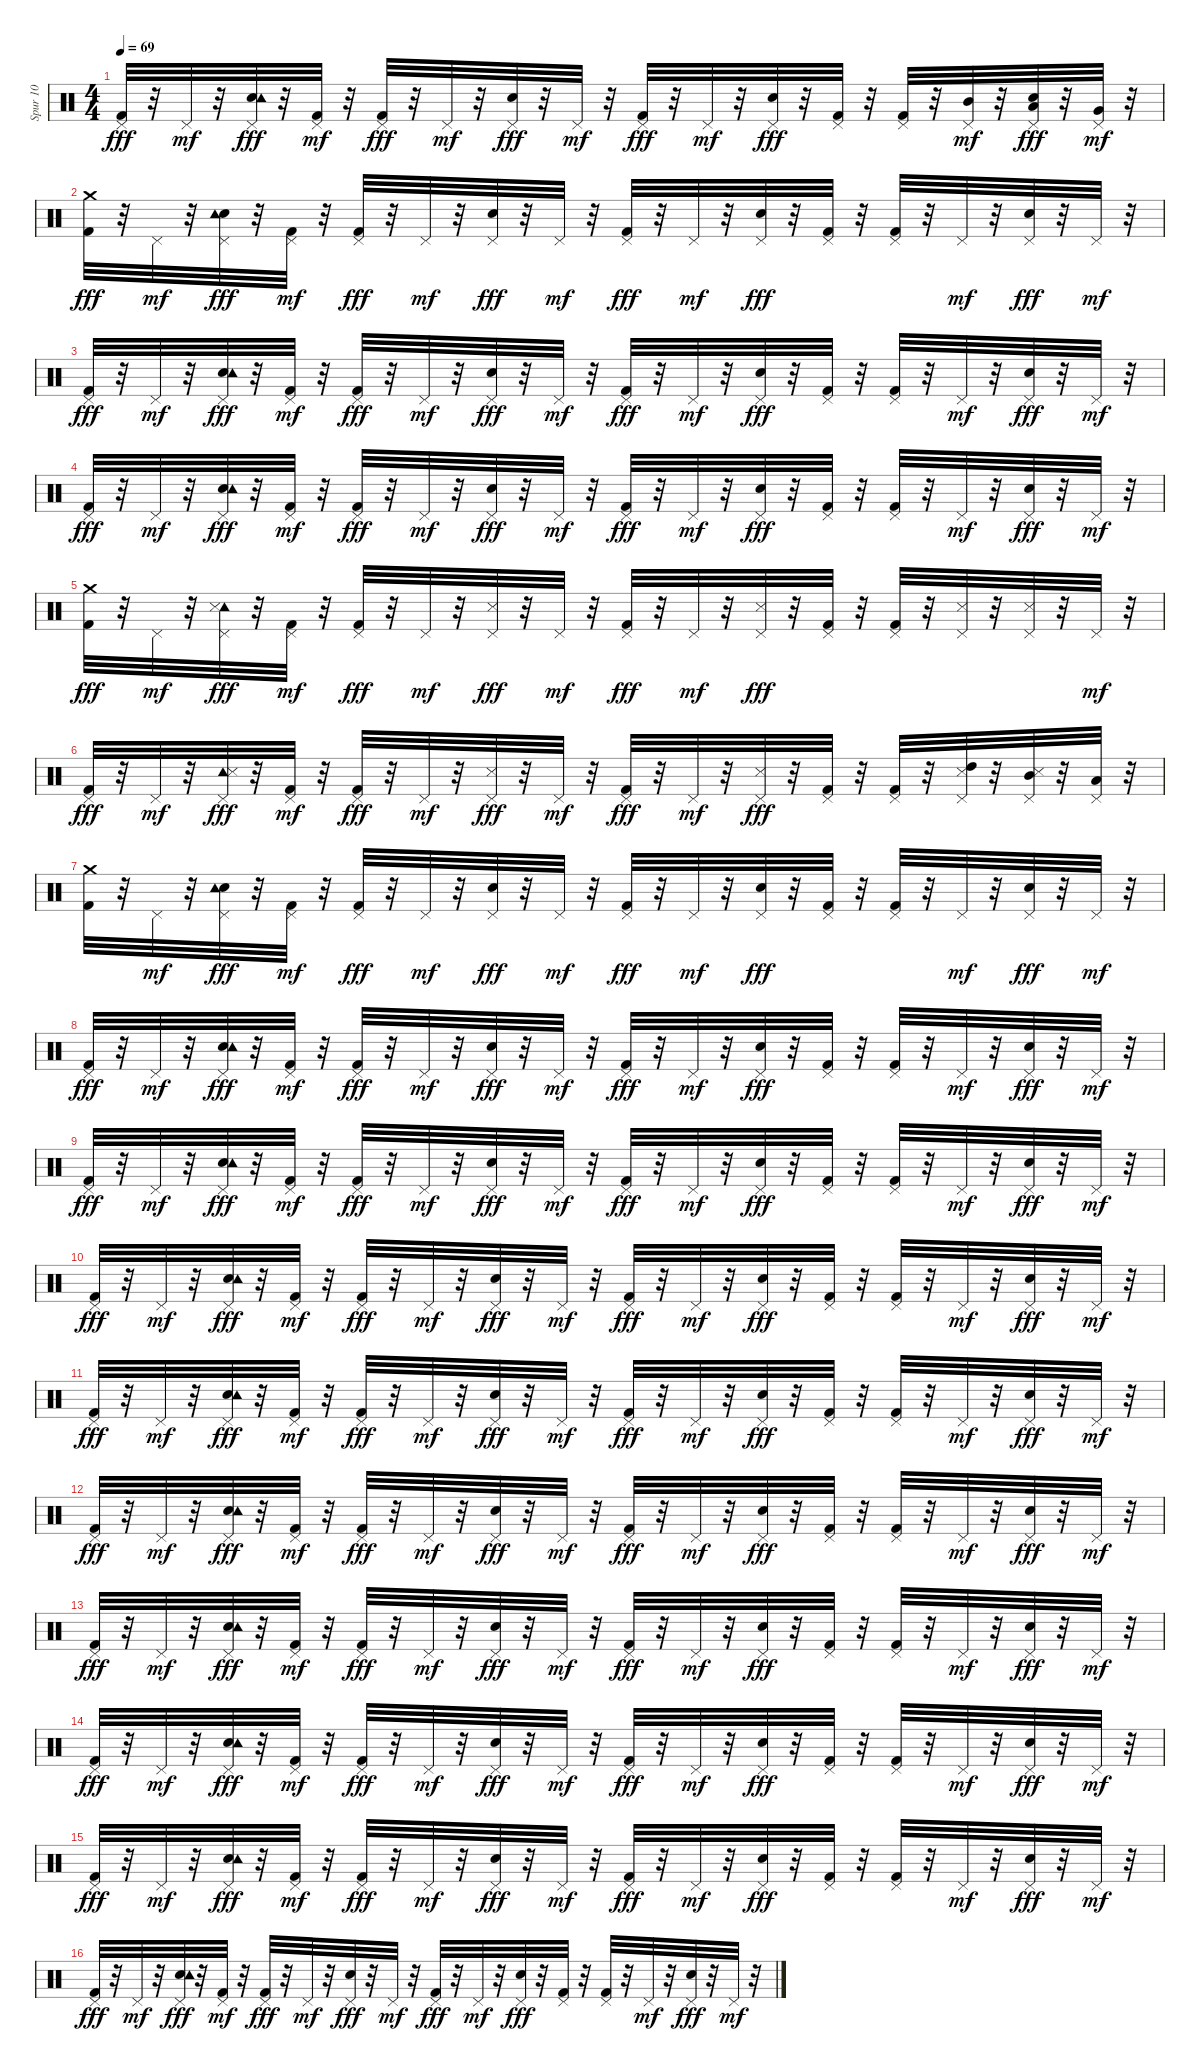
\track ("Spur 10" "Spur 10") {instrument percussion}
\staff {score}
\articulation defaults
\ts (4 4)
\tempo 69
\clef neutral
\ks c
("Kick (hit) 2" "Pedal Hi-Hat (hit)").32{dy fff} r.32 "Pedal Hi-Hat (hit)".32{dy mf} r.32 ("Snare (hit) 2" "Pedal Hi-Hat (hit)" "Tambourine (hit)").32{dy fff} r.32 ("Kick (hit) 2" "Pedal Hi-Hat (hit)").32{dy mf} r.32 ("Kick (hit) 2" "Pedal Hi-Hat (hit)").32{dy fff} r.32 "Pedal Hi-Hat (hit)".32{dy mf} r.32 ("Snare (hit) 2" "Pedal Hi-Hat (hit)").32{dy fff} r.32 "Pedal Hi-Hat (hit)".32{dy mf} r.32 ("Kick (hit) 2" "Pedal Hi-Hat (hit)").32{dy fff} r.32 "Pedal Hi-Hat (hit)".32{dy mf} r.32 ("Snare (hit) 2" "Pedal Hi-Hat (hit)").32{dy fff} r.32 ("Kick (hit) 2" "Pedal Hi-Hat (hit)").32 r.32 ("Kick (hit) 2" "Pedal Hi-Hat (hit)").32 r.32 ("Mid Tom (hit)" "Pedal Hi-Hat (hit)").32{dy mf} r.32 ("Snare (hit) 2" "Pedal Hi-Hat (hit)" "Low Tom (hit)").32{dy fff} r.32 ("Very Low Tom (hit)" "Pedal Hi-Hat (hit)").32{dy mf} r.32 |
("Kick (hit) 2" "Crash medium (hit)").32{dy fff} r.32 "Pedal Hi-Hat (hit)".32{dy mf} r.32 ("Snare (hit) 2" "Pedal Hi-Hat (hit)" "Tambourine (hit)").32{dy fff} r.32 ("Kick (hit) 2" "Pedal Hi-Hat (hit)").32{dy mf} r.32 ("Kick (hit) 2" "Pedal Hi-Hat (hit)").32{dy fff} r.32 "Pedal Hi-Hat (hit)".32{dy mf} r.32 ("Snare (hit) 2" "Pedal Hi-Hat (hit)").32{dy fff} r.32 "Pedal Hi-Hat (hit)".32{dy mf} r.32 ("Kick (hit) 2" "Pedal Hi-Hat (hit)").32{dy fff} r.32 "Pedal Hi-Hat (hit)".32{dy mf} r.32 ("Snare (hit) 2" "Pedal Hi-Hat (hit)").32{dy fff} r.32 ("Kick (hit) 2" "Pedal Hi-Hat (hit)").32 r.32 ("Kick (hit) 2" "Pedal Hi-Hat (hit)").32 r.32 "Pedal Hi-Hat (hit)".32{dy mf} r.32 ("Snare (hit) 2" "Pedal Hi-Hat (hit)").32{dy fff} r.32 "Pedal Hi-Hat (hit)".32{dy mf} r.32 |
("Kick (hit) 2" "Pedal Hi-Hat (hit)").32{dy fff} r.32 "Pedal Hi-Hat (hit)".32{dy mf} r.32 ("Snare (hit) 2" "Pedal Hi-Hat (hit)" "Tambourine (hit)").32{dy fff} r.32 ("Kick (hit) 2" "Pedal Hi-Hat (hit)").32{dy mf} r.32 ("Kick (hit) 2" "Pedal Hi-Hat (hit)").32{dy fff} r.32 "Pedal Hi-Hat (hit)".32{dy mf} r.32 ("Snare (hit) 2" "Pedal Hi-Hat (hit)").32{dy fff} r.32 "Pedal Hi-Hat (hit)".32{dy mf} r.32 ("Kick (hit) 2" "Pedal Hi-Hat (hit)").32{dy fff} r.32 "Pedal Hi-Hat (hit)".32{dy mf} r.32 ("Snare (hit) 2" "Pedal Hi-Hat (hit)").32{dy fff} r.32 ("Kick (hit) 2" "Pedal Hi-Hat (hit)").32 r.32 ("Kick (hit) 2" "Pedal Hi-Hat (hit)").32 r.32 "Pedal Hi-Hat (hit)".32{dy mf} r.32 ("Snare (hit) 2" "Pedal Hi-Hat (hit)").32{dy fff} r.32 "Pedal Hi-Hat (hit)".32{dy mf} r.32 |
("Kick (hit) 2" "Pedal Hi-Hat (hit)").32{dy fff} r.32 "Pedal Hi-Hat (hit)".32{dy mf} r.32 ("Snare (hit) 2" "Pedal Hi-Hat (hit)" "Tambourine (hit)").32{dy fff} r.32 ("Kick (hit) 2" "Pedal Hi-Hat (hit)").32{dy mf} r.32 ("Kick (hit) 2" "Pedal Hi-Hat (hit)").32{dy fff} r.32 "Pedal Hi-Hat (hit)".32{dy mf} r.32 ("Snare (hit) 2" "Pedal Hi-Hat (hit)").32{dy fff} r.32 "Pedal Hi-Hat (hit)".32{dy mf} r.32 ("Kick (hit) 2" "Pedal Hi-Hat (hit)").32{dy fff} r.32 "Pedal Hi-Hat (hit)".32{dy mf} r.32 ("Snare (hit) 2" "Pedal Hi-Hat (hit)").32{dy fff} r.32 ("Kick (hit) 2" "Pedal Hi-Hat (hit)").32 r.32 ("Kick (hit) 2" "Pedal Hi-Hat (hit)").32 r.32 "Pedal Hi-Hat (hit)".32{dy mf} r.32 ("Snare (hit) 2" "Pedal Hi-Hat (hit)").32{dy fff} r.32 "Pedal Hi-Hat (hit)".32{dy mf} r.32 |
("Kick (hit) 2" "Crash medium (hit)").32{dy fff} r.32 "Pedal Hi-Hat (hit)".32{dy mf} r.32 ("Pedal Hi-Hat (hit)" "Tambourine (hit)" "Snare (side stick) 3").32{dy fff} r.32 ("Kick (hit) 2" "Pedal Hi-Hat (hit)").32{dy mf} r.32 ("Kick (hit) 2" "Pedal Hi-Hat (hit)").32{dy fff} r.32 "Pedal Hi-Hat (hit)".32{dy mf} r.32 ("Pedal Hi-Hat (hit)" "Snare (side stick) 3").32{dy fff} r.32 "Pedal Hi-Hat (hit)".32{dy mf} r.32 ("Kick (hit) 2" "Pedal Hi-Hat (hit)").32{dy fff} r.32 "Pedal Hi-Hat (hit)".32{dy mf} r.32 ("Pedal Hi-Hat (hit)" "Snare (side stick) 3").32{dy fff} r.32 ("Kick (hit) 2" "Pedal Hi-Hat (hit)").32 r.32 ("Kick (hit) 2" "Pedal Hi-Hat (hit)").32 r.32 ("Pedal Hi-Hat (hit)" "Snare (side stick) 3").32 r.32 ("Pedal Hi-Hat (hit)" "Snare (side stick) 3").32 r.32 "Pedal Hi-Hat (hit)".32{dy mf} r.32 |
("Kick (hit) 2" "Pedal Hi-Hat (hit)").32{dy fff} r.32 "Pedal Hi-Hat (hit)".32{dy mf} r.32 ("Pedal Hi-Hat (hit)" "Tambourine (hit)" "Snare (side stick) 3").32{dy fff} r.32 ("Kick (hit) 2" "Pedal Hi-Hat (hit)").32{dy mf} r.32 ("Kick (hit) 2" "Pedal Hi-Hat (hit)").32{dy fff} r.32 "Pedal Hi-Hat (hit)".32{dy mf} r.32 ("Pedal Hi-Hat (hit)" "Snare (side stick) 3").32{dy fff} r.32 "Pedal Hi-Hat (hit)".32{dy mf} r.32 ("Kick (hit) 2" "Pedal Hi-Hat (hit)").32{dy fff} r.32 "Pedal Hi-Hat (hit)".32{dy mf} r.32 ("Pedal Hi-Hat (hit)" "Snare (side stick) 3").32{dy fff} r.32 ("Kick (hit) 2" "Pedal Hi-Hat (hit)").32 r.32 ("Kick (hit) 2" "Pedal Hi-Hat (hit)").32 r.32 ("Pedal Hi-Hat (hit)" "Snare (side stick) 3" "High Tom (hit)").32 r.32 ("Pedal Hi-Hat (hit)" "Snare (side stick) 3" "Mid Tom (hit)").32 r.32 ("Pedal Hi-Hat (hit)" "Low Floor Tom (hit)").32 r.32 |
("Kick (hit) 2" "Crash medium (hit)").32 r.32 "Pedal Hi-Hat (hit)".32{dy mf} r.32 ("Snare (hit) 2" "Pedal Hi-Hat (hit)" "Tambourine (hit)").32{dy fff} r.32 ("Kick (hit) 2" "Pedal Hi-Hat (hit)").32{dy mf} r.32 ("Kick (hit) 2" "Pedal Hi-Hat (hit)").32{dy fff} r.32 "Pedal Hi-Hat (hit)".32{dy mf} r.32 ("Snare (hit) 2" "Pedal Hi-Hat (hit)").32{dy fff} r.32 "Pedal Hi-Hat (hit)".32{dy mf} r.32 ("Kick (hit) 2" "Pedal Hi-Hat (hit)").32{dy fff} r.32 "Pedal Hi-Hat (hit)".32{dy mf} r.32 ("Snare (hit) 2" "Pedal Hi-Hat (hit)").32{dy fff} r.32 ("Kick (hit) 2" "Pedal Hi-Hat (hit)").32 r.32 ("Kick (hit) 2" "Pedal Hi-Hat (hit)").32 r.32 "Pedal Hi-Hat (hit)".32{dy mf} r.32 ("Snare (hit) 2" "Pedal Hi-Hat (hit)").32{dy fff} r.32 "Pedal Hi-Hat (hit)".32{dy mf} r.32 |
("Kick (hit) 2" "Pedal Hi-Hat (hit)").32{dy fff} r.32 "Pedal Hi-Hat (hit)".32{dy mf} r.32 ("Snare (hit) 2" "Pedal Hi-Hat (hit)" "Tambourine (hit)").32{dy fff} r.32 ("Kick (hit) 2" "Pedal Hi-Hat (hit)").32{dy mf} r.32 ("Kick (hit) 2" "Pedal Hi-Hat (hit)").32{dy fff} r.32 "Pedal Hi-Hat (hit)".32{dy mf} r.32 ("Snare (hit) 2" "Pedal Hi-Hat (hit)").32{dy fff} r.32 "Pedal Hi-Hat (hit)".32{dy mf} r.32 ("Kick (hit) 2" "Pedal Hi-Hat (hit)").32{dy fff} r.32 "Pedal Hi-Hat (hit)".32{dy mf} r.32 ("Snare (hit) 2" "Pedal Hi-Hat (hit)").32{dy fff} r.32 ("Kick (hit) 2" "Pedal Hi-Hat (hit)").32 r.32 ("Kick (hit) 2" "Pedal Hi-Hat (hit)").32 r.32 "Pedal Hi-Hat (hit)".32{dy mf} r.32 ("Snare (hit) 2" "Pedal Hi-Hat (hit)").32{dy fff} r.32 "Pedal Hi-Hat (hit)".32{dy mf} r.32 |
("Kick (hit) 2" "Pedal Hi-Hat (hit)").32{dy fff} r.32 "Pedal Hi-Hat (hit)".32{dy mf} r.32 ("Snare (hit) 2" "Pedal Hi-Hat (hit)" "Tambourine (hit)").32{dy fff} r.32 ("Kick (hit) 2" "Pedal Hi-Hat (hit)").32{dy mf} r.32 ("Kick (hit) 2" "Pedal Hi-Hat (hit)").32{dy fff} r.32 "Pedal Hi-Hat (hit)".32{dy mf} r.32 ("Snare (hit) 2" "Pedal Hi-Hat (hit)").32{dy fff} r.32 "Pedal Hi-Hat (hit)".32{dy mf} r.32 ("Kick (hit) 2" "Pedal Hi-Hat (hit)").32{dy fff} r.32 "Pedal Hi-Hat (hit)".32{dy mf} r.32 ("Snare (hit) 2" "Pedal Hi-Hat (hit)").32{dy fff} r.32 ("Kick (hit) 2" "Pedal Hi-Hat (hit)").32 r.32 ("Kick (hit) 2" "Pedal Hi-Hat (hit)").32 r.32 "Pedal Hi-Hat (hit)".32{dy mf} r.32 ("Snare (hit) 2" "Pedal Hi-Hat (hit)").32{dy fff} r.32 "Pedal Hi-Hat (hit)".32{dy mf} r.32 |
("Kick (hit) 2" "Pedal Hi-Hat (hit)").32{dy fff} r.32 "Pedal Hi-Hat (hit)".32{dy mf} r.32 ("Snare (hit) 2" "Pedal Hi-Hat (hit)" "Tambourine (hit)").32{dy fff} r.32 ("Kick (hit) 2" "Pedal Hi-Hat (hit)").32{dy mf} r.32 ("Kick (hit) 2" "Pedal Hi-Hat (hit)").32{dy fff} r.32 "Pedal Hi-Hat (hit)".32{dy mf} r.32 ("Snare (hit) 2" "Pedal Hi-Hat (hit)").32{dy fff} r.32 "Pedal Hi-Hat (hit)".32{dy mf} r.32 ("Kick (hit) 2" "Pedal Hi-Hat (hit)").32{dy fff} r.32 "Pedal Hi-Hat (hit)".32{dy mf} r.32 ("Snare (hit) 2" "Pedal Hi-Hat (hit)").32{dy fff} r.32 ("Kick (hit) 2" "Pedal Hi-Hat (hit)").32 r.32 ("Kick (hit) 2" "Pedal Hi-Hat (hit)").32 r.32 "Pedal Hi-Hat (hit)".32{dy mf} r.32 ("Snare (hit) 2" "Pedal Hi-Hat (hit)").32{dy fff} r.32 "Pedal Hi-Hat (hit)".32{dy mf} r.32 |
("Kick (hit) 2" "Pedal Hi-Hat (hit)").32{dy fff} r.32 "Pedal Hi-Hat (hit)".32{dy mf} r.32 ("Snare (hit) 2" "Pedal Hi-Hat (hit)" "Tambourine (hit)").32{dy fff} r.32 ("Kick (hit) 2" "Pedal Hi-Hat (hit)").32{dy mf} r.32 ("Kick (hit) 2" "Pedal Hi-Hat (hit)").32{dy fff} r.32 "Pedal Hi-Hat (hit)".32{dy mf} r.32 ("Snare (hit) 2" "Pedal Hi-Hat (hit)").32{dy fff} r.32 "Pedal Hi-Hat (hit)".32{dy mf} r.32 ("Kick (hit) 2" "Pedal Hi-Hat (hit)").32{dy fff} r.32 "Pedal Hi-Hat (hit)".32{dy mf} r.32 ("Snare (hit) 2" "Pedal Hi-Hat (hit)").32{dy fff} r.32 ("Kick (hit) 2" "Pedal Hi-Hat (hit)").32 r.32 ("Kick (hit) 2" "Pedal Hi-Hat (hit)").32 r.32 "Pedal Hi-Hat (hit)".32{dy mf} r.32 ("Snare (hit) 2" "Pedal Hi-Hat (hit)").32{dy fff} r.32 "Pedal Hi-Hat (hit)".32{dy mf} r.32 |
("Kick (hit) 2" "Pedal Hi-Hat (hit)").32{dy fff} r.32 "Pedal Hi-Hat (hit)".32{dy mf} r.32 ("Snare (hit) 2" "Pedal Hi-Hat (hit)" "Tambourine (hit)").32{dy fff} r.32 ("Kick (hit) 2" "Pedal Hi-Hat (hit)").32{dy mf} r.32 ("Kick (hit) 2" "Pedal Hi-Hat (hit)").32{dy fff} r.32 "Pedal Hi-Hat (hit)".32{dy mf} r.32 ("Snare (hit) 2" "Pedal Hi-Hat (hit)").32{dy fff} r.32 "Pedal Hi-Hat (hit)".32{dy mf} r.32 ("Kick (hit) 2" "Pedal Hi-Hat (hit)").32{dy fff} r.32 "Pedal Hi-Hat (hit)".32{dy mf} r.32 ("Snare (hit) 2" "Pedal Hi-Hat (hit)").32{dy fff} r.32 ("Kick (hit) 2" "Pedal Hi-Hat (hit)").32 r.32 ("Kick (hit) 2" "Pedal Hi-Hat (hit)").32 r.32 "Pedal Hi-Hat (hit)".32{dy mf} r.32 ("Snare (hit) 2" "Pedal Hi-Hat (hit)").32{dy fff} r.32 "Pedal Hi-Hat (hit)".32{dy mf} r.32 |
("Kick (hit) 2" "Pedal Hi-Hat (hit)").32{dy fff} r.32 "Pedal Hi-Hat (hit)".32{dy mf} r.32 ("Snare (hit) 2" "Pedal Hi-Hat (hit)" "Tambourine (hit)").32{dy fff} r.32 ("Kick (hit) 2" "Pedal Hi-Hat (hit)").32{dy mf} r.32 ("Kick (hit) 2" "Pedal Hi-Hat (hit)").32{dy fff} r.32 "Pedal Hi-Hat (hit)".32{dy mf} r.32 ("Snare (hit) 2" "Pedal Hi-Hat (hit)").32{dy fff} r.32 "Pedal Hi-Hat (hit)".32{dy mf} r.32 ("Kick (hit) 2" "Pedal Hi-Hat (hit)").32{dy fff} r.32 "Pedal Hi-Hat (hit)".32{dy mf} r.32 ("Snare (hit) 2" "Pedal Hi-Hat (hit)").32{dy fff} r.32 ("Kick (hit) 2" "Pedal Hi-Hat (hit)").32 r.32 ("Kick (hit) 2" "Pedal Hi-Hat (hit)").32 r.32 "Pedal Hi-Hat (hit)".32{dy mf} r.32 ("Snare (hit) 2" "Pedal Hi-Hat (hit)").32{dy fff} r.32 "Pedal Hi-Hat (hit)".32{dy mf} r.32 |
("Kick (hit) 2" "Pedal Hi-Hat (hit)").32{dy fff} r.32 "Pedal Hi-Hat (hit)".32{dy mf} r.32 ("Snare (hit) 2" "Pedal Hi-Hat (hit)" "Tambourine (hit)").32{dy fff} r.32 ("Kick (hit) 2" "Pedal Hi-Hat (hit)").32{dy mf} r.32 ("Kick (hit) 2" "Pedal Hi-Hat (hit)").32{dy fff} r.32 "Pedal Hi-Hat (hit)".32{dy mf} r.32 ("Snare (hit) 2" "Pedal Hi-Hat (hit)").32{dy fff} r.32 "Pedal Hi-Hat (hit)".32{dy mf} r.32 ("Kick (hit) 2" "Pedal Hi-Hat (hit)").32{dy fff} r.32 "Pedal Hi-Hat (hit)".32{dy mf} r.32 ("Snare (hit) 2" "Pedal Hi-Hat (hit)").32{dy fff} r.32 ("Kick (hit) 2" "Pedal Hi-Hat (hit)").32 r.32 ("Kick (hit) 2" "Pedal Hi-Hat (hit)").32 r.32 "Pedal Hi-Hat (hit)".32{dy mf} r.32 ("Snare (hit) 2" "Pedal Hi-Hat (hit)").32{dy fff} r.32 "Pedal Hi-Hat (hit)".32{dy mf} r.32 |
("Kick (hit) 2" "Pedal Hi-Hat (hit)").32{dy fff} r.32 "Pedal Hi-Hat (hit)".32{dy mf} r.32 ("Snare (hit) 2" "Pedal Hi-Hat (hit)" "Tambourine (hit)").32{dy fff} r.32 ("Kick (hit) 2" "Pedal Hi-Hat (hit)").32{dy mf} r.32 ("Kick (hit) 2" "Pedal Hi-Hat (hit)").32{dy fff} r.32 "Pedal Hi-Hat (hit)".32{dy mf} r.32 ("Snare (hit) 2" "Pedal Hi-Hat (hit)").32{dy fff} r.32 "Pedal Hi-Hat (hit)".32{dy mf} r.32 ("Kick (hit) 2" "Pedal Hi-Hat (hit)").32{dy fff} r.32 "Pedal Hi-Hat (hit)".32{dy mf} r.32 ("Snare (hit) 2" "Pedal Hi-Hat (hit)").32{dy fff} r.32 ("Kick (hit) 2" "Pedal Hi-Hat (hit)").32 r.32 ("Kick (hit) 2" "Pedal Hi-Hat (hit)").32 r.32 "Pedal Hi-Hat (hit)".32{dy mf} r.32 ("Snare (hit) 2" "Pedal Hi-Hat (hit)").32{dy fff} r.32 "Pedal Hi-Hat (hit)".32{dy mf} r.32 |
("Kick (hit) 2" "Pedal Hi-Hat (hit)").32{dy fff} r.32 "Pedal Hi-Hat (hit)".32{dy mf} r.32 ("Snare (hit) 2" "Pedal Hi-Hat (hit)" "Tambourine (hit)").32{dy fff} r.32 ("Kick (hit) 2" "Pedal Hi-Hat (hit)").32{dy mf} r.32 ("Kick (hit) 2" "Pedal Hi-Hat (hit)").32{dy fff} r.32 "Pedal Hi-Hat (hit)".32{dy mf} r.32 ("Snare (hit) 2" "Pedal Hi-Hat (hit)").32{dy fff} r.32 "Pedal Hi-Hat (hit)".32{dy mf} r.32 ("Kick (hit) 2" "Pedal Hi-Hat (hit)").32{dy fff} r.32 "Pedal Hi-Hat (hit)".32{dy mf} r.32 ("Snare (hit) 2" "Pedal Hi-Hat (hit)").32{dy fff} r.32 ("Kick (hit) 2" "Pedal Hi-Hat (hit)").32 r.32 ("Kick (hit) 2" "Pedal Hi-Hat (hit)").32 r.32 "Pedal Hi-Hat (hit)".32{dy mf} r.32 ("Snare (hit) 2" "Pedal Hi-Hat (hit)").32{dy fff} r.32 "Pedal Hi-Hat (hit)".32{dy mf} r.32
